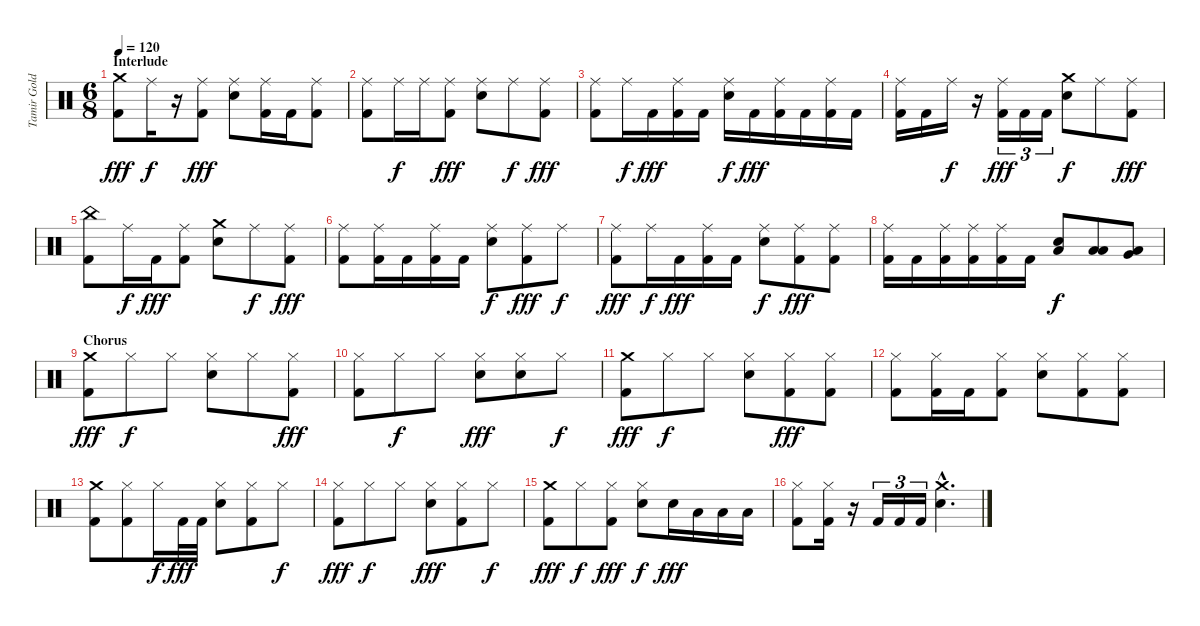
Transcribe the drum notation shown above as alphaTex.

\track ("Tamir Goldberg" "Tamir Gold") {instrument percussion}
\staff {score}
\articulation defaults
\ts (6 8)
\section ("" "Interlude")
\tempo 120
\clef neutral
\ks c
("Crash medium (hit)" "Kick (hit) 2").8{dy fff} "Ride (middle)".16{dy f} r.16 ("Ride (middle)" "Kick (hit) 2").8{dy fff} ("Ride (middle)" "Electric Snare (hit)").8 ("Ride (middle)" "Kick (hit) 2").16 "Kick (hit) 2".16 ("Ride (middle)" "Kick (hit) 2").8 |
("Ride (middle)" "Kick (hit) 2").8 "Ride (middle)".16{dy f} "Ride (middle)".16 ("Ride (middle)" "Kick (hit) 2").8{dy fff} ("Ride (middle)" "Electric Snare (hit)").8 "Ride (middle)".8{dy f} ("Ride (middle)" "Kick (hit) 2").8{dy fff} |
("Ride (middle)" "Kick (hit) 2").8 "Ride (middle)".16{dy f} "Kick (hit) 2".16{dy fff} ("Ride (middle)" "Kick (hit) 2").16 "Kick (hit) 2".16 ("Ride (middle)" "Electric Snare (hit)").16{dy f} "Kick (hit) 2".16{dy fff} ("Ride (middle)" "Kick (hit) 2").16 "Kick (hit) 2".16 ("Ride (middle)" "Kick (hit) 2").16 "Kick (hit) 2".16 |
("Ride (middle)" "Kick (hit) 2").16 "Kick (hit) 2".16 "Ride (middle)".16{dy f} r.16 ("Ride (middle)" "Kick (hit) 2").16{tu (3 2) dy fff} "Kick (hit) 2".16{tu (3 2)} "Kick (hit) 2".16{tu (3 2)} ("Crash medium (hit)" "Electric Snare (hit)").8{dy f} "Ride (middle)".8 ("Ride (middle)" "Kick (hit) 2").8{dy fff} |
("China (hit)" "Kick (hit) 2").8 "Ride (middle)".16{dy f} "Kick (hit) 2".16{dy fff} ("Ride (middle)" "Kick (hit) 2").8 ("Crash medium (hit)" "Electric Snare (hit)").8 "Ride (middle)".8{dy f} ("Ride (middle)" "Kick (hit) 2").8{dy fff} |
("Ride (middle)" "Kick (hit) 2").8 ("Ride (middle)" "Kick (hit) 2").16 "Kick (hit) 2".16 ("Ride (middle)" "Kick (hit) 2").16 "Kick (hit) 2".16 ("Ride (middle)" "Electric Snare (hit)").8{dy f} ("Ride (middle)" "Kick (hit) 2").8{dy fff} "Ride (middle)".8{dy f} |
("Ride (middle)" "Kick (hit) 2").8{dy fff} "Ride (middle)".16{dy f} "Kick (hit) 2".16{dy fff} ("Ride (middle)" "Kick (hit) 2").16 "Kick (hit) 2".16 ("Ride (middle)" "Electric Snare (hit)").8{dy f} ("Ride (middle)" "Kick (hit) 2").8{dy fff} ("Ride (middle)" "Kick (hit) 2").8 |
("Ride (middle)" "Kick (hit) 2").16 "Kick (hit) 2".16 ("Ride (middle)" "Kick (hit) 2").16 ("Ride (middle)" "Kick (hit) 2").16 ("Ride (middle)" "Kick (hit) 2").16 "Kick (hit) 2".16 ("Low Floor Tom (hit)" "Electric Snare (hit)").8{dy f} ("Low Floor Tom (hit)" "Low Tom (hit)").8 ("Low Floor Tom (hit)" "Very Low Tom (hit)").8 |
\section ("" "Chorus")
("Crash medium (hit)" "Kick (hit) 2").8{dy fff} "Hi-Hat (closed)".8{dy f} "Hi-Hat (closed)".8 ("Hi-Hat (closed)" "Electric Snare (hit)").8 "Hi-Hat (closed)".8 ("Hi-Hat (closed)" "Kick (hit) 2").8{dy fff} |
("Hi-Hat (closed)" "Kick (hit) 2").8 "Hi-Hat (closed)".8{dy f} "Hi-Hat (closed)".8 ("Hi-Hat (closed)" "Electric Snare (hit)").8{dy fff} ("Hi-Hat (closed)" "Electric Snare (hit)").8 "Hi-Hat (closed)".8{dy f} |
("Crash medium (hit)" "Kick (hit) 2").8{dy fff} "Hi-Hat (closed)".8{dy f} "Hi-Hat (closed)".8 ("Hi-Hat (closed)" "Electric Snare (hit)").8 ("Hi-Hat (closed)" "Kick (hit) 2").8{dy fff} ("Hi-Hat (closed)" "Kick (hit) 2").8 |
("Hi-Hat (closed)" "Kick (hit) 2").8 ("Hi-Hat (closed)" "Kick (hit) 2").16 "Kick (hit) 2".16 ("Hi-Hat (closed)" "Kick (hit) 2").8 ("Hi-Hat (closed)" "Electric Snare (hit)").8 ("Hi-Hat (closed)" "Kick (hit) 2").8 ("Hi-Hat (closed)" "Kick (hit) 2").8 |
("Crash medium (hit)" "Kick (hit) 2").8 ("Hi-Hat (closed)" "Kick (hit) 2").8 "Hi-Hat (closed)".16{dy f} "Kick (hit) 2".32{dy fff} "Kick (hit) 2".32 ("Hi-Hat (closed)" "Electric Snare (hit)").8 ("Hi-Hat (closed)" "Kick (hit) 2").8 "Hi-Hat (closed)".8{dy f} |
("Hi-Hat (closed)" "Kick (hit) 2").8{dy fff} "Hi-Hat (closed)".8{dy f} "Hi-Hat (closed)".8 ("Hi-Hat (closed)" "Electric Snare (hit)").8{dy fff} ("Hi-Hat (closed)" "Kick (hit) 2").8 "Hi-Hat (closed)".8{dy f} |
("Crash medium (hit)" "Kick (hit) 2").8{dy fff} "Hi-Hat (closed)".8{dy f} ("Hi-Hat (closed)" "Kick (hit) 2").8{dy fff} ("Hi-Hat (closed)" "Electric Snare (hit)").8{dy f} "Electric Snare (hit)".16{dy fff} "Low Tom (hit)".16 "Low Tom (hit)".16 "Low Tom (hit)".16 |
("Hi-Hat (closed)" "Kick (hit) 2").8 ("Hi-Hat (closed)" "Kick (hit) 2").16 r.16 "Kick (hit) 2".16{tu (3 2)} "Kick (hit) 2".16{tu (3 2)} "Kick (hit) 2".16{tu (3 2)} ("Crash medium (hit)"{hac} "Electric Snare (hit)"{hac}).4{d}
